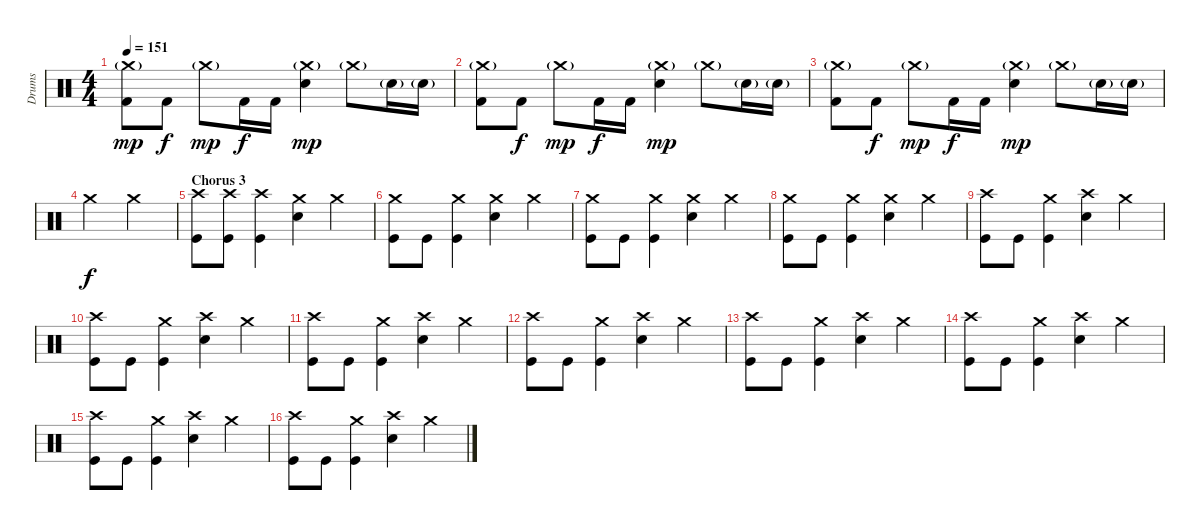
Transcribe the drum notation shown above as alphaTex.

\track ("Drums" "Drums") {instrument percussion}
\staff {score}
\articulation defaults
\ts (4 4)
\tempo 151
\clef neutral
\ks c
("Crash medium (hit)"{g} "Kick (hit) 2").8{dy mp} "Kick (hit) 2".8{dy f} "Crash medium (hit)"{g}.8{dy mp} "Kick (hit) 2".16{dy f} "Kick (hit) 2".16 ("Crash medium (hit)"{g} "Electric Snare (hit)").4{dy mp} "Crash medium (hit)"{g}.8 "Electric Snare (hit)"{g}.16 "Electric Snare (hit)"{g}.16 |
("Crash medium (hit)"{g} "Kick (hit) 2").8 "Kick (hit) 2".8{dy f} "Crash medium (hit)"{g}.8{dy mp} "Kick (hit) 2".16{dy f} "Kick (hit) 2".16 ("Crash medium (hit)"{g} "Electric Snare (hit)").4{dy mp} "Crash medium (hit)"{g}.8 "Electric Snare (hit)"{g}.16 "Electric Snare (hit)"{g}.16 |
("Crash medium (hit)"{g} "Kick (hit) 2").8 "Kick (hit) 2".8{dy f} "Crash medium (hit)"{g}.8{dy mp} "Kick (hit) 2".16{dy f} "Kick (hit) 2".16 ("Crash medium (hit)"{g} "Electric Snare (hit)").4{dy mp} "Crash medium (hit)"{g}.8 "Electric Snare (hit)"{g}.16 "Electric Snare (hit)"{g}.16 |
"Crash medium (hit)".2{dy f} "Crash medium (hit)".2 |
\section ("" "Chorus 3")
("Crash high (hit)" "Kick (hit)").8 ("Crash high (hit)" "Kick (hit)").8 ("Crash high (hit)" "Kick (hit)").4 ("Crash medium (hit)" "Electric Snare (hit)").4 "Crash medium (hit)".4 |
("Crash medium (hit)" "Kick (hit)").8 "Kick (hit)".8 ("Crash medium (hit)" "Kick (hit)").4 ("Crash medium (hit)" "Electric Snare (hit)").4 "Crash medium (hit)".4 |
("Crash medium (hit)" "Kick (hit)").8 "Kick (hit)".8 ("Crash medium (hit)" "Kick (hit)").4 ("Crash medium (hit)" "Electric Snare (hit)").4 "Crash medium (hit)".4 |
("Crash medium (hit)" "Kick (hit)").8 "Kick (hit)".8 ("Crash medium (hit)" "Kick (hit)").4 ("Crash medium (hit)" "Electric Snare (hit)").4 "Crash medium (hit)".4 |
("Crash high (hit)" "Kick (hit)").8 "Kick (hit)".8 ("Crash medium (hit)" "Kick (hit)").4 ("Crash high (hit)" "Electric Snare (hit)").4 "Crash medium (hit)".4 |
("Crash high (hit)" "Kick (hit)").8 "Kick (hit)".8 ("Crash medium (hit)" "Kick (hit)").4 ("Crash high (hit)" "Electric Snare (hit)").4 "Crash medium (hit)".4 |
("Crash high (hit)" "Kick (hit)").8 "Kick (hit)".8 ("Crash medium (hit)" "Kick (hit)").4 ("Crash high (hit)" "Electric Snare (hit)").4 "Crash medium (hit)".4 |
("Crash high (hit)" "Kick (hit)").8 "Kick (hit)".8 ("Crash medium (hit)" "Kick (hit)").4 ("Crash high (hit)" "Electric Snare (hit)").4 "Crash medium (hit)".4 |
("Crash high (hit)" "Kick (hit)").8 "Kick (hit)".8 ("Crash medium (hit)" "Kick (hit)").4 ("Crash high (hit)" "Electric Snare (hit)").4 "Crash medium (hit)".4 |
("Crash high (hit)" "Kick (hit)").8 "Kick (hit)".8 ("Crash medium (hit)" "Kick (hit)").4 ("Crash high (hit)" "Electric Snare (hit)").4 "Crash medium (hit)".4 |
("Crash high (hit)" "Kick (hit)").8 "Kick (hit)".8 ("Crash medium (hit)" "Kick (hit)").4 ("Crash high (hit)" "Electric Snare (hit)").4 "Crash medium (hit)".4 |
("Crash high (hit)" "Kick (hit)").8 "Kick (hit)".8 ("Crash medium (hit)" "Kick (hit)").4 ("Crash high (hit)" "Electric Snare (hit)").4 "Crash medium (hit)".4
